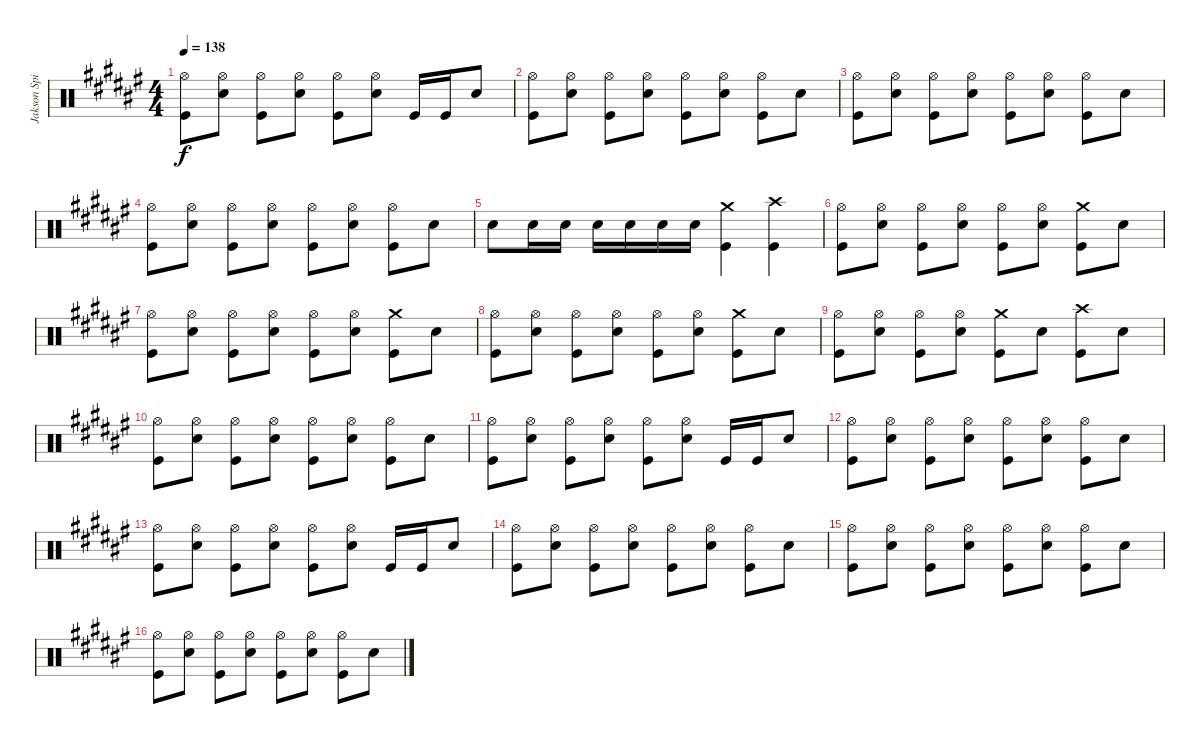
\track ("Jakson Spires" "Jakson Spi") {instrument percussion}
\staff {score}
\articulation defaults
\ts (4 4)
\tempo 138
\clef neutral
\ks f#
("Hi-Hat (open)" "Kick (hit)").8{dy f} ("Hi-Hat (open)" "Snare (hit) 2").8 ("Hi-Hat (open)" "Kick (hit)").8 ("Hi-Hat (open)" "Snare (hit) 2").8 ("Hi-Hat (open)" "Kick (hit)").8 ("Hi-Hat (open)" "Snare (hit) 2").8 "Kick (hit)".16 "Kick (hit)".16 "Snare (hit) 2".8 |
("Hi-Hat (open)" "Kick (hit)").8 ("Hi-Hat (open)" "Snare (hit) 2").8 ("Hi-Hat (open)" "Kick (hit)").8 ("Hi-Hat (open)" "Snare (hit) 2").8 ("Hi-Hat (open)" "Kick (hit)").8 ("Hi-Hat (open)" "Snare (hit) 2").8 ("Hi-Hat (open)" "Kick (hit)").8 "Snare (hit) 2".8 |
("Hi-Hat (open)" "Kick (hit)").8 ("Hi-Hat (open)" "Snare (hit) 2").8 ("Hi-Hat (open)" "Kick (hit)").8 ("Hi-Hat (open)" "Snare (hit) 2").8 ("Hi-Hat (open)" "Kick (hit)").8 ("Hi-Hat (open)" "Snare (hit) 2").8 ("Hi-Hat (open)" "Kick (hit)").8 "Snare (hit) 2".8 |
("Hi-Hat (open)" "Kick (hit)").8 ("Hi-Hat (open)" "Snare (hit) 2").8 ("Hi-Hat (open)" "Kick (hit)").8 ("Hi-Hat (open)" "Snare (hit) 2").8 ("Hi-Hat (open)" "Kick (hit)").8 ("Hi-Hat (open)" "Snare (hit) 2").8 ("Hi-Hat (open)" "Kick (hit)").8 "Snare (hit) 2".8 |
"Snare (hit) 2".8 "Snare (hit) 2".16 "Snare (hit) 2".16 "Snare (hit) 2".16 "Snare (hit) 2".16 "Snare (hit) 2".16 "Snare (hit) 2".16 ("Crash medium (hit)" "Kick (hit)").4 ("Crash high (hit)" "Kick (hit)").4 |
("Hi-Hat (open)" "Kick (hit)").8 ("Hi-Hat (open)" "Snare (hit) 2").8 ("Hi-Hat (open)" "Kick (hit)").8 ("Hi-Hat (open)" "Snare (hit) 2").8 ("Hi-Hat (open)" "Kick (hit)").8 ("Hi-Hat (open)" "Snare (hit) 2").8 ("Crash medium (hit)" "Kick (hit)").8 "Snare (hit) 2".8 |
("Hi-Hat (open)" "Kick (hit)").8 ("Hi-Hat (open)" "Snare (hit) 2").8 ("Hi-Hat (open)" "Kick (hit)").8 ("Hi-Hat (open)" "Snare (hit) 2").8 ("Hi-Hat (open)" "Kick (hit)").8 ("Hi-Hat (open)" "Snare (hit) 2").8 ("Crash medium (hit)" "Kick (hit)").8 "Snare (hit) 2".8 |
("Hi-Hat (open)" "Kick (hit)").8 ("Hi-Hat (open)" "Snare (hit) 2").8 ("Hi-Hat (open)" "Kick (hit)").8 ("Hi-Hat (open)" "Snare (hit) 2").8 ("Hi-Hat (open)" "Kick (hit)").8 ("Hi-Hat (open)" "Snare (hit) 2").8 ("Crash medium (hit)" "Kick (hit)").8 "Snare (hit) 2".8 |
("Hi-Hat (open)" "Kick (hit)").8 ("Hi-Hat (open)" "Snare (hit) 2").8 ("Hi-Hat (open)" "Kick (hit)").8 ("Hi-Hat (open)" "Snare (hit) 2").8 ("Crash medium (hit)" "Kick (hit)").8 "Snare (hit) 2".8 ("Crash high (hit)" "Kick (hit)").8 "Snare (hit) 2".8 |
("Hi-Hat (open)" "Kick (hit)").8 ("Hi-Hat (open)" "Snare (hit) 2").8 ("Hi-Hat (open)" "Kick (hit)").8 ("Hi-Hat (open)" "Snare (hit) 2").8 ("Hi-Hat (open)" "Kick (hit)").8 ("Hi-Hat (open)" "Snare (hit) 2").8 ("Hi-Hat (open)" "Kick (hit)").8 "Snare (hit) 2".8 |
("Hi-Hat (open)" "Kick (hit)").8 ("Hi-Hat (open)" "Snare (hit) 2").8 ("Hi-Hat (open)" "Kick (hit)").8 ("Hi-Hat (open)" "Snare (hit) 2").8 ("Hi-Hat (open)" "Kick (hit)").8 ("Hi-Hat (open)" "Snare (hit) 2").8 "Kick (hit)".16 "Kick (hit)".16 "Snare (hit) 2".8 |
("Hi-Hat (open)" "Kick (hit)").8 ("Hi-Hat (open)" "Snare (hit) 2").8 ("Hi-Hat (open)" "Kick (hit)").8 ("Hi-Hat (open)" "Snare (hit) 2").8 ("Hi-Hat (open)" "Kick (hit)").8 ("Hi-Hat (open)" "Snare (hit) 2").8 ("Hi-Hat (open)" "Kick (hit)").8 "Snare (hit) 2".8 |
("Hi-Hat (open)" "Kick (hit)").8 ("Hi-Hat (open)" "Snare (hit) 2").8 ("Hi-Hat (open)" "Kick (hit)").8 ("Hi-Hat (open)" "Snare (hit) 2").8 ("Hi-Hat (open)" "Kick (hit)").8 ("Hi-Hat (open)" "Snare (hit) 2").8 "Kick (hit)".16 "Kick (hit)".16 "Snare (hit) 2".8 |
("Hi-Hat (open)" "Kick (hit)").8 ("Hi-Hat (open)" "Snare (hit) 2").8 ("Hi-Hat (open)" "Kick (hit)").8 ("Hi-Hat (open)" "Snare (hit) 2").8 ("Hi-Hat (open)" "Kick (hit)").8 ("Hi-Hat (open)" "Snare (hit) 2").8 ("Hi-Hat (open)" "Kick (hit)").8 "Snare (hit) 2".8 |
("Hi-Hat (open)" "Kick (hit)").8 ("Hi-Hat (open)" "Snare (hit) 2").8 ("Hi-Hat (open)" "Kick (hit)").8 ("Hi-Hat (open)" "Snare (hit) 2").8 ("Hi-Hat (open)" "Kick (hit)").8 ("Hi-Hat (open)" "Snare (hit) 2").8 ("Hi-Hat (open)" "Kick (hit)").8 "Snare (hit) 2".8 |
("Hi-Hat (open)" "Kick (hit)").8 ("Hi-Hat (open)" "Snare (hit) 2").8 ("Hi-Hat (open)" "Kick (hit)").8 ("Hi-Hat (open)" "Snare (hit) 2").8 ("Hi-Hat (open)" "Kick (hit)").8 ("Hi-Hat (open)" "Snare (hit) 2").8 ("Hi-Hat (open)" "Kick (hit)").8 "Snare (hit) 2".8
